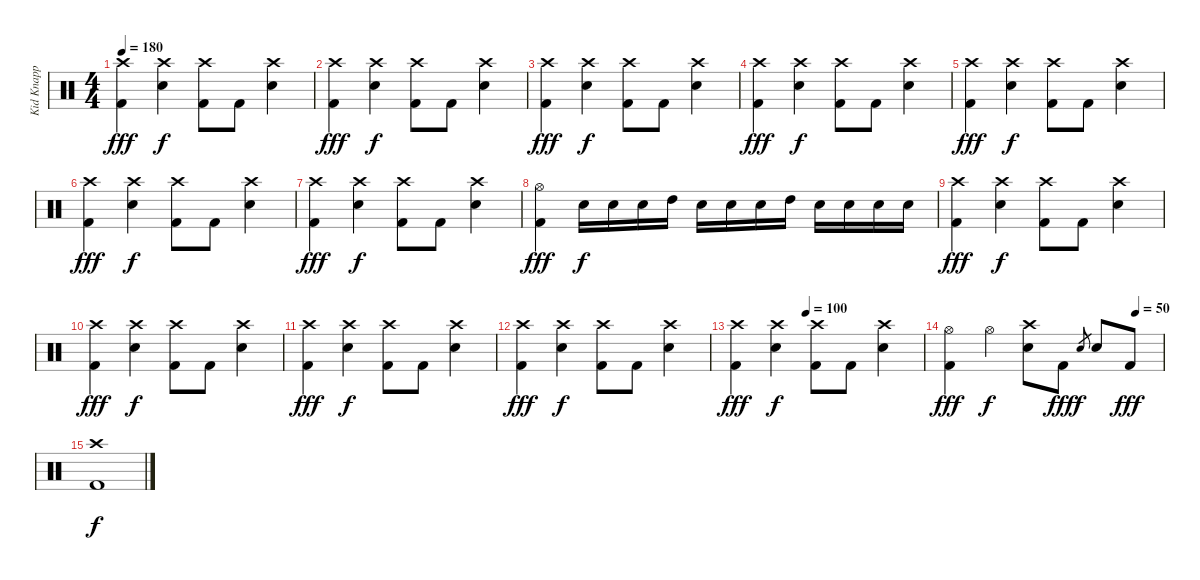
\track ("Kid Knapp (Drums)" "Kid Knapp ") {instrument percussion}
\staff {score}
\articulation defaults
\ts (4 4)
\tempo 180
\clef neutral
\ks c
("Crash high (hit)" "Kick (hit) 2").4{dy fff} ("Crash high (hit)" "Snare (hit) 2").4{dy f} ("Crash high (hit)" "Kick (hit) 2").8 "Kick (hit) 2".8 ("Crash high (hit)" "Snare (hit) 2").4 |
("Crash high (hit)" "Kick (hit) 2").4{dy fff} ("Crash high (hit)" "Snare (hit) 2").4{dy f} ("Crash high (hit)" "Kick (hit) 2").8 "Kick (hit) 2".8 ("Crash high (hit)" "Snare (hit) 2").4 |
("Crash high (hit)" "Kick (hit) 2").4{dy fff} ("Crash high (hit)" "Snare (hit) 2").4{dy f} ("Crash high (hit)" "Kick (hit) 2").8 "Kick (hit) 2".8 ("Crash high (hit)" "Snare (hit) 2").4 |
("Crash high (hit)" "Kick (hit) 2").4{dy fff} ("Crash high (hit)" "Snare (hit) 2").4{dy f} ("Crash high (hit)" "Kick (hit) 2").8 "Kick (hit) 2".8 ("Crash high (hit)" "Snare (hit) 2").4 |
("Crash high (hit)" "Kick (hit) 2").4{dy fff} ("Crash high (hit)" "Snare (hit) 2").4{dy f} ("Crash high (hit)" "Kick (hit) 2").8 "Kick (hit) 2".8 ("Crash high (hit)" "Snare (hit) 2").4 |
("Crash high (hit)" "Kick (hit) 2").4{dy fff} ("Crash high (hit)" "Snare (hit) 2").4{dy f} ("Crash high (hit)" "Kick (hit) 2").8 "Kick (hit) 2".8 ("Crash high (hit)" "Snare (hit) 2").4 |
("Crash high (hit)" "Kick (hit) 2").4{dy fff} ("Crash high (hit)" "Snare (hit) 2").4{dy f} ("Crash high (hit)" "Kick (hit) 2").8 "Kick (hit) 2".8 ("Crash high (hit)" "Snare (hit) 2").4 |
("Hi-Hat (open)" "Kick (hit) 2").4{dy fff} "Snare (hit) 2".16{dy f} "Snare (hit) 2".16 "Snare (hit) 2".16 "High Tom (hit)".16 "Snare (hit) 2".16 "Snare (hit) 2".16 "Snare (hit) 2".16 "High Tom (hit)".16 "Snare (hit) 2".16 "Snare (hit) 2".16 "Snare (hit) 2".16 "Snare (hit) 2".16 |
("Crash high (hit)" "Kick (hit) 2").4{dy fff} ("Crash high (hit)" "Snare (hit) 2").4{dy f} ("Crash high (hit)" "Kick (hit) 2").8 "Kick (hit) 2".8 ("Crash high (hit)" "Snare (hit) 2").4 |
("Crash high (hit)" "Kick (hit) 2").4{dy fff} ("Crash high (hit)" "Snare (hit) 2").4{dy f} ("Crash high (hit)" "Kick (hit) 2").8 "Kick (hit) 2".8 ("Crash high (hit)" "Snare (hit) 2").4 |
("Crash high (hit)" "Kick (hit) 2").4{dy fff} ("Crash high (hit)" "Snare (hit) 2").4{dy f} ("Crash high (hit)" "Kick (hit) 2").8 "Kick (hit) 2".8 ("Crash high (hit)" "Snare (hit) 2").4 |
("Crash high (hit)" "Kick (hit) 2").4{dy fff} ("Crash high (hit)" "Snare (hit) 2").4{dy f} ("Crash high (hit)" "Kick (hit) 2").8 "Kick (hit) 2".8 ("Crash high (hit)" "Snare (hit) 2").4 |
\tempo (100 0.375)
("Crash high (hit)" "Kick (hit) 2").4{dy fff} ("Crash high (hit)" "Snare (hit) 2").4{dy f} ("Crash high (hit)" "Kick (hit) 2").8 "Kick (hit) 2".8 ("Crash high (hit)" "Snare (hit) 2").4 |
\tempo (50 0.875)
("Hi-Hat (open)" "Kick (hit) 2").4{dy fff} "Hi-Hat (open)".4{dy f} ("Crash high (hit)" "Snare (hit) 2").8 "Kick (hit) 2".8{dy fff} "Snare (hit) 2".8{gr dy f} "Snare (hit) 2".8 "Kick (hit) 2".8{dy fff} |
("Crash high (hit)" "Kick (hit) 2").1{dy f}
